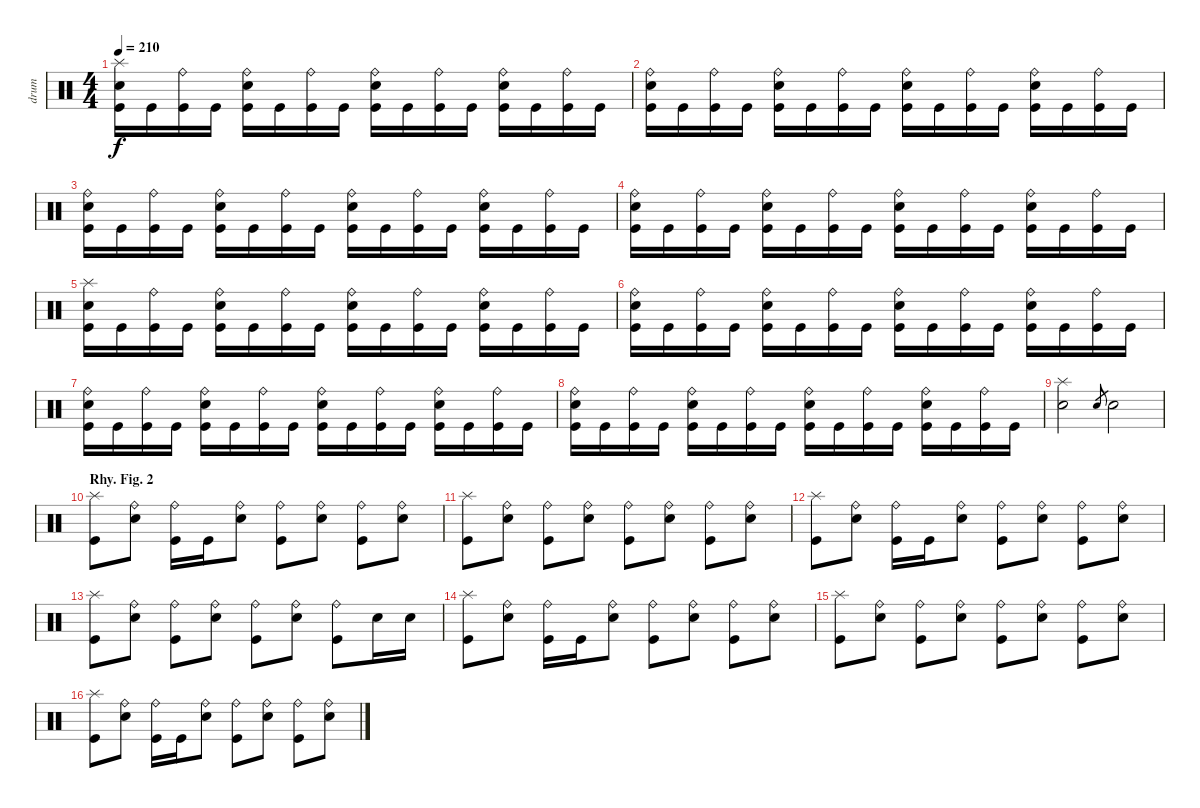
\track ("drum" "drum") {instrument percussion}
\staff {score}
\articulation defaults
\ts (4 4)
\tempo 210
\clef neutral
\ks c
("Kick (hit)" "Electric Snare (hit)" "Splash (hit)").16{dy f} "Kick (hit)".16 ("Kick (hit)" "Ride (bell)").16 "Kick (hit)".16 ("Kick (hit)" "Electric Snare (hit)" "Ride (bell)").16 "Kick (hit)".16 ("Kick (hit)" "Ride (bell)").16 "Kick (hit)".16 ("Kick (hit)" "Electric Snare (hit)" "Ride (bell)").16 "Kick (hit)".16 ("Kick (hit)" "Ride (bell)").16 "Kick (hit)".16 ("Kick (hit)" "Electric Snare (hit)" "Ride (bell)").16 "Kick (hit)".16 ("Kick (hit)" "Ride (bell)").16 "Kick (hit)".16 |
("Kick (hit)" "Electric Snare (hit)" "Ride (bell)").16 "Kick (hit)".16 ("Kick (hit)" "Ride (bell)").16 "Kick (hit)".16 ("Kick (hit)" "Electric Snare (hit)" "Ride (bell)").16 "Kick (hit)".16 ("Kick (hit)" "Ride (bell)").16 "Kick (hit)".16 ("Kick (hit)" "Electric Snare (hit)" "Ride (bell)").16 "Kick (hit)".16 ("Kick (hit)" "Ride (bell)").16 "Kick (hit)".16 ("Kick (hit)" "Electric Snare (hit)" "Ride (bell)").16 "Kick (hit)".16 ("Kick (hit)" "Ride (bell)").16 "Kick (hit)".16 |
("Kick (hit)" "Electric Snare (hit)" "Ride (bell)").16 "Kick (hit)".16 ("Kick (hit)" "Ride (bell)").16 "Kick (hit)".16 ("Kick (hit)" "Electric Snare (hit)" "Ride (bell)").16 "Kick (hit)".16 ("Kick (hit)" "Ride (bell)").16 "Kick (hit)".16 ("Kick (hit)" "Electric Snare (hit)" "Ride (bell)").16 "Kick (hit)".16 ("Kick (hit)" "Ride (bell)").16 "Kick (hit)".16 ("Kick (hit)" "Electric Snare (hit)" "Ride (bell)").16 "Kick (hit)".16 ("Kick (hit)" "Ride (bell)").16 "Kick (hit)".16 |
("Kick (hit)" "Electric Snare (hit)" "Ride (bell)").16 "Kick (hit)".16 ("Kick (hit)" "Ride (bell)").16 "Kick (hit)".16 ("Kick (hit)" "Electric Snare (hit)" "Ride (bell)").16 "Kick (hit)".16 ("Kick (hit)" "Ride (bell)").16 "Kick (hit)".16 ("Kick (hit)" "Electric Snare (hit)" "Ride (bell)").16 "Kick (hit)".16 ("Kick (hit)" "Ride (bell)").16 "Kick (hit)".16 ("Kick (hit)" "Electric Snare (hit)" "Ride (bell)").16 "Kick (hit)".16 ("Kick (hit)" "Ride (bell)").16 "Kick (hit)".16 |
("Kick (hit)" "Electric Snare (hit)" "Splash (hit)").16 "Kick (hit)".16 ("Kick (hit)" "Ride (bell)").16 "Kick (hit)".16 ("Kick (hit)" "Electric Snare (hit)" "Ride (bell)").16 "Kick (hit)".16 ("Kick (hit)" "Ride (bell)").16 "Kick (hit)".16 ("Kick (hit)" "Electric Snare (hit)" "Ride (bell)").16 "Kick (hit)".16 ("Kick (hit)" "Ride (bell)").16 "Kick (hit)".16 ("Kick (hit)" "Electric Snare (hit)" "Ride (bell)").16 "Kick (hit)".16 ("Kick (hit)" "Ride (bell)").16 "Kick (hit)".16 |
("Kick (hit)" "Electric Snare (hit)" "Ride (bell)").16 "Kick (hit)".16 ("Kick (hit)" "Ride (bell)").16 "Kick (hit)".16 ("Kick (hit)" "Electric Snare (hit)" "Ride (bell)").16 "Kick (hit)".16 ("Kick (hit)" "Ride (bell)").16 "Kick (hit)".16 ("Kick (hit)" "Electric Snare (hit)" "Ride (bell)").16 "Kick (hit)".16 ("Kick (hit)" "Ride (bell)").16 "Kick (hit)".16 ("Kick (hit)" "Electric Snare (hit)" "Ride (bell)").16 "Kick (hit)".16 ("Kick (hit)" "Ride (bell)").16 "Kick (hit)".16 |
("Kick (hit)" "Electric Snare (hit)" "Ride (bell)").16 "Kick (hit)".16 ("Kick (hit)" "Ride (bell)").16 "Kick (hit)".16 ("Kick (hit)" "Electric Snare (hit)" "Ride (bell)").16 "Kick (hit)".16 ("Kick (hit)" "Ride (bell)").16 "Kick (hit)".16 ("Kick (hit)" "Electric Snare (hit)" "Ride (bell)").16 "Kick (hit)".16 ("Kick (hit)" "Ride (bell)").16 "Kick (hit)".16 ("Kick (hit)" "Electric Snare (hit)" "Ride (bell)").16 "Kick (hit)".16 ("Kick (hit)" "Ride (bell)").16 "Kick (hit)".16 |
("Kick (hit)" "Electric Snare (hit)" "Ride (bell)").16 "Kick (hit)".16 ("Kick (hit)" "Ride (bell)").16 "Kick (hit)".16 ("Kick (hit)" "Electric Snare (hit)" "Ride (bell)").16 "Kick (hit)".16 ("Kick (hit)" "Ride (bell)").16 "Kick (hit)".16 ("Kick (hit)" "Electric Snare (hit)" "Ride (bell)").16 "Kick (hit)".16 ("Kick (hit)" "Ride (bell)").16 "Kick (hit)".16 ("Kick (hit)" "Electric Snare (hit)" "Ride (bell)").16 "Kick (hit)".16 ("Kick (hit)" "Ride (bell)").16 "Kick (hit)".16 |
("Electric Snare (hit)" "Splash (hit)").2 "Electric Snare (hit)".8{gr} "Electric Snare (hit)".2 |
\section ("" "Rhy. Fig. 2")
("Kick (hit)" "Splash (hit)").8 ("Electric Snare (hit)" "Ride (bell)").8 ("Kick (hit)" "Ride (bell)").16 "Kick (hit)".16 ("Electric Snare (hit)" "Ride (bell)").8 ("Kick (hit)" "Ride (bell)").8 ("Electric Snare (hit)" "Ride (bell)").8 ("Kick (hit)" "Ride (bell)").8 ("Electric Snare (hit)" "Ride (bell)").8 |
("Kick (hit)" "Splash (hit)").8 ("Electric Snare (hit)" "Ride (bell)").8 ("Kick (hit)" "Ride (bell)").8 ("Electric Snare (hit)" "Ride (bell)").8 ("Kick (hit)" "Ride (bell)").8 ("Electric Snare (hit)" "Ride (bell)").8 ("Kick (hit)" "Ride (bell)").8 ("Electric Snare (hit)" "Ride (bell)").8 |
("Kick (hit)" "Splash (hit)").8 ("Electric Snare (hit)" "Ride (bell)").8 ("Kick (hit)" "Ride (bell)").16 "Kick (hit)".16 ("Electric Snare (hit)" "Ride (bell)").8 ("Kick (hit)" "Ride (bell)").8 ("Electric Snare (hit)" "Ride (bell)").8 ("Kick (hit)" "Ride (bell)").8 ("Electric Snare (hit)" "Ride (bell)").8 |
("Kick (hit)" "Splash (hit)").8 ("Electric Snare (hit)" "Ride (bell)").8 ("Kick (hit)" "Ride (bell)").8 ("Electric Snare (hit)" "Ride (bell)").8 ("Kick (hit)" "Ride (bell)").8 ("Electric Snare (hit)" "Ride (bell)").8 ("Kick (hit)" "Ride (bell)").8 "Electric Snare (hit)".16 "Electric Snare (hit)".16 |
("Kick (hit)" "Splash (hit)").8 ("Electric Snare (hit)" "Ride (bell)").8 ("Kick (hit)" "Ride (bell)").16 "Kick (hit)".16 ("Electric Snare (hit)" "Ride (bell)").8 ("Kick (hit)" "Ride (bell)").8 ("Electric Snare (hit)" "Ride (bell)").8 ("Kick (hit)" "Ride (bell)").8 ("Electric Snare (hit)" "Ride (bell)").8 |
("Kick (hit)" "Splash (hit)").8 ("Electric Snare (hit)" "Ride (bell)").8 ("Kick (hit)" "Ride (bell)").8 ("Electric Snare (hit)" "Ride (bell)").8 ("Kick (hit)" "Ride (bell)").8 ("Electric Snare (hit)" "Ride (bell)").8 ("Kick (hit)" "Ride (bell)").8 ("Electric Snare (hit)" "Ride (bell)").8 |
("Kick (hit)" "Splash (hit)").8 ("Electric Snare (hit)" "Ride (bell)").8 ("Kick (hit)" "Ride (bell)").16 "Kick (hit)".16 ("Electric Snare (hit)" "Ride (bell)").8 ("Kick (hit)" "Ride (bell)").8 ("Electric Snare (hit)" "Ride (bell)").8 ("Kick (hit)" "Ride (bell)").8 ("Electric Snare (hit)" "Ride (bell)").8
